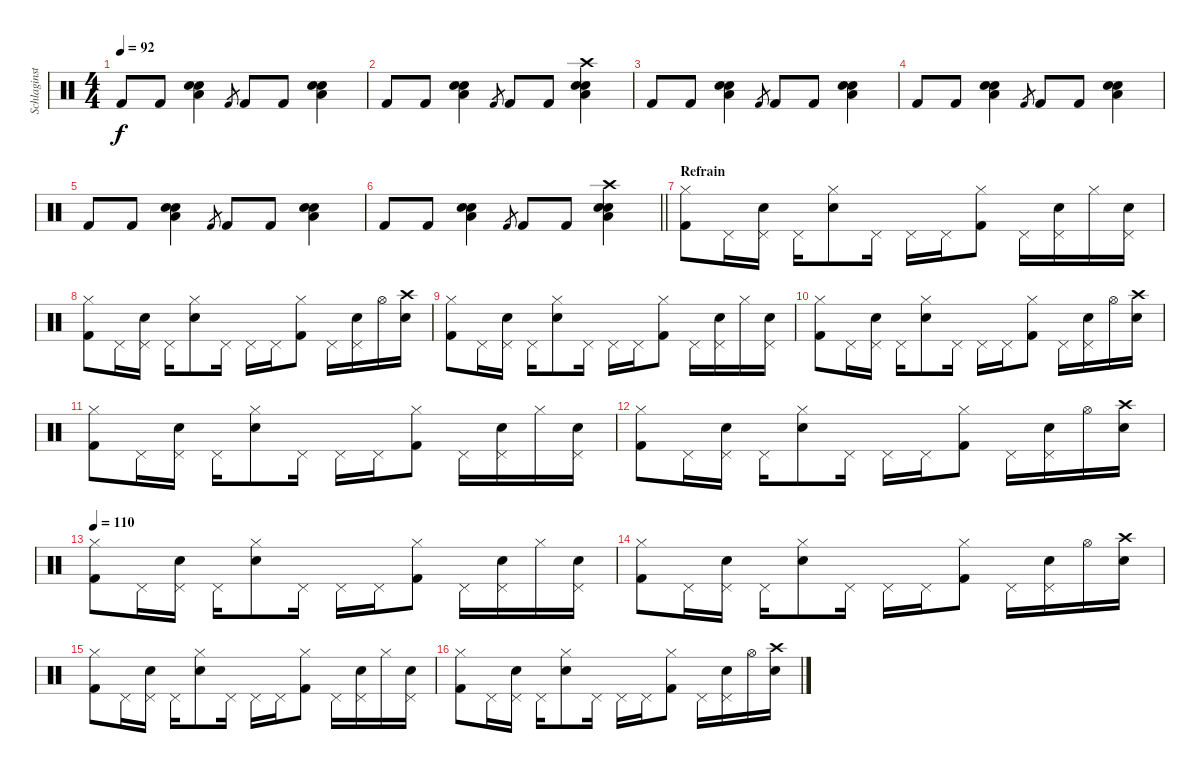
\track ("Schlaginstrumente - Auswahl" "Schlaginst") {mute instrument percussion}
\staff {score}
\articulation defaults
\ts (4 4)
\tempo 92
\clef neutral
\ks c "Kick (hit) 2".8{dy f} "Kick (hit) 2".8
("Low Floor Tom (hit)" "Electric Snare (hit)" "Electric Snare (hit)").4 "Kick (hit) 2".8{gr} "Kick (hit) 2".8 "Kick (hit) 2".8 ("Low Floor Tom (hit)" "Electric Snare (hit)" "Electric Snare (hit)").4 |
"Kick (hit) 2".8 "Kick (hit) 2".8 ("Low Floor Tom (hit)" "Electric Snare (hit)" "Electric Snare (hit)").4 "Kick (hit) 2".8{gr} "Kick (hit) 2".8 "Kick (hit) 2".8 ("Crash high (hit)" "Low Floor Tom (hit)" "Electric Snare (hit)" "Electric Snare (hit)").4 |
"Kick (hit) 2".8 "Kick (hit) 2".8 ("Low Floor Tom (hit)" "Electric Snare (hit)" "Electric Snare (hit)").4 "Kick (hit) 2".8{gr} "Kick (hit) 2".8 "Kick (hit) 2".8 ("Low Floor Tom (hit)" "Electric Snare (hit)" "Electric Snare (hit)").4 |
"Kick (hit) 2".8 "Kick (hit) 2".8 ("Low Floor Tom (hit)" "Electric Snare (hit)" "Electric Snare (hit)").4 "Kick (hit) 2".8{gr} "Kick (hit) 2".8 "Kick (hit) 2".8 ("Low Floor Tom (hit)" "Electric Snare (hit)" "Electric Snare (hit)").4 |
"Kick (hit) 2".8 "Kick (hit) 2".8 ("Low Floor Tom (hit)" "Electric Snare (hit)" "Electric Snare (hit)").4 "Kick (hit) 2".8{gr} "Kick (hit) 2".8 "Kick (hit) 2".8 ("Low Floor Tom (hit)" "Electric Snare (hit)" "Electric Snare (hit)").4 |
\barLineRight lightlight "Kick (hit) 2".8 "Kick (hit) 2".8
("Low Floor Tom (hit)" "Electric Snare (hit)" "Electric Snare (hit)").4 "Kick (hit) 2".8{gr} "Kick (hit) 2".8 "Kick (hit) 2".8 ("Crash high (hit)" "Low Floor Tom (hit)" "Electric Snare (hit)" "Electric Snare (hit)").4 |
\section ("" "Refrain")
("Hi-Hat (closed)" "Kick (hit) 2").8 "Pedal Hi-Hat (hit)".16 ("Pedal Hi-Hat (hit)" "Snare (hit) 2").16 "Pedal Hi-Hat (hit)".16 ("Hi-Hat (closed)" "Snare (hit) 2").8 "Pedal Hi-Hat (hit)".16 "Pedal Hi-Hat (hit)".16 "Pedal Hi-Hat (hit)".16 ("Hi-Hat (closed)" "Kick (hit) 2").8 "Pedal Hi-Hat (hit)".16 ("Pedal Hi-Hat (hit)" "Snare (hit) 2").16 "Hi-Hat (closed)".16 ("Pedal Hi-Hat (hit)" "Snare (hit) 2").16 |
("Hi-Hat (closed)" "Kick (hit) 2").8 "Pedal Hi-Hat (hit)".16 ("Pedal Hi-Hat (hit)" "Snare (hit) 2").16 "Pedal Hi-Hat (hit)".16 ("Hi-Hat (closed)" "Snare (hit) 2").8 "Pedal Hi-Hat (hit)".16 "Pedal Hi-Hat (hit)".16 "Pedal Hi-Hat (hit)".16 ("Hi-Hat (closed)" "Kick (hit) 2").8 "Pedal Hi-Hat (hit)".16 ("Pedal Hi-Hat (hit)" "Snare (hit) 2").16 "Hi-Hat (open)".16 ("Crash high (hit)" "Snare (hit) 2").16 |
("Hi-Hat (closed)" "Kick (hit) 2").8 "Pedal Hi-Hat (hit)".16 ("Pedal Hi-Hat (hit)" "Snare (hit) 2").16 "Pedal Hi-Hat (hit)".16 ("Hi-Hat (closed)" "Snare (hit) 2").8 "Pedal Hi-Hat (hit)".16 "Pedal Hi-Hat (hit)".16 "Pedal Hi-Hat (hit)".16 ("Hi-Hat (closed)" "Kick (hit) 2").8 "Pedal Hi-Hat (hit)".16 ("Pedal Hi-Hat (hit)" "Snare (hit) 2").16 "Hi-Hat (closed)".16 ("Pedal Hi-Hat (hit)" "Snare (hit) 2").16 |
("Hi-Hat (closed)" "Kick (hit) 2").8 "Pedal Hi-Hat (hit)".16 ("Pedal Hi-Hat (hit)" "Snare (hit) 2").16 "Pedal Hi-Hat (hit)".16 ("Hi-Hat (closed)" "Snare (hit) 2").8 "Pedal Hi-Hat (hit)".16 "Pedal Hi-Hat (hit)".16 "Pedal Hi-Hat (hit)".16 ("Hi-Hat (closed)" "Kick (hit) 2").8 "Pedal Hi-Hat (hit)".16 ("Pedal Hi-Hat (hit)" "Snare (hit) 2").16 "Hi-Hat (open)".16 ("Crash high (hit)" "Snare (hit) 2").16 |
("Hi-Hat (closed)" "Kick (hit) 2").8 "Pedal Hi-Hat (hit)".16 ("Pedal Hi-Hat (hit)" "Snare (hit) 2").16 "Pedal Hi-Hat (hit)".16 ("Hi-Hat (closed)" "Snare (hit) 2").8 "Pedal Hi-Hat (hit)".16 "Pedal Hi-Hat (hit)".16 "Pedal Hi-Hat (hit)".16 ("Hi-Hat (closed)" "Kick (hit) 2").8 "Pedal Hi-Hat (hit)".16 ("Pedal Hi-Hat (hit)" "Snare (hit) 2").16 "Hi-Hat (closed)".16 ("Pedal Hi-Hat (hit)" "Snare (hit) 2").16 |
("Hi-Hat (closed)" "Kick (hit) 2").8 "Pedal Hi-Hat (hit)".16 ("Pedal Hi-Hat (hit)" "Snare (hit) 2").16 "Pedal Hi-Hat (hit)".16 ("Hi-Hat (closed)" "Snare (hit) 2").8 "Pedal Hi-Hat (hit)".16 "Pedal Hi-Hat (hit)".16 "Pedal Hi-Hat (hit)".16 ("Hi-Hat (closed)" "Kick (hit) 2").8 "Pedal Hi-Hat (hit)".16 ("Pedal Hi-Hat (hit)" "Snare (hit) 2").16 "Hi-Hat (open)".16 ("Crash high (hit)" "Snare (hit) 2").16 |
\tempo 110
("Hi-Hat (closed)" "Kick (hit) 2").8 "Pedal Hi-Hat (hit)".16 ("Pedal Hi-Hat (hit)" "Snare (hit) 2").16 "Pedal Hi-Hat (hit)".16 ("Hi-Hat (closed)" "Snare (hit) 2").8 "Pedal Hi-Hat (hit)".16 "Pedal Hi-Hat (hit)".16 "Pedal Hi-Hat (hit)".16 ("Hi-Hat (closed)" "Kick (hit) 2").8 "Pedal Hi-Hat (hit)".16 ("Pedal Hi-Hat (hit)" "Snare (hit) 2").16 "Hi-Hat (closed)".16 ("Pedal Hi-Hat (hit)" "Snare (hit) 2").16 |
("Hi-Hat (closed)" "Kick (hit) 2").8 "Pedal Hi-Hat (hit)".16 ("Pedal Hi-Hat (hit)" "Snare (hit) 2").16 "Pedal Hi-Hat (hit)".16 ("Hi-Hat (closed)" "Snare (hit) 2").8 "Pedal Hi-Hat (hit)".16 "Pedal Hi-Hat (hit)".16 "Pedal Hi-Hat (hit)".16 ("Hi-Hat (closed)" "Kick (hit) 2").8 "Pedal Hi-Hat (hit)".16 ("Pedal Hi-Hat (hit)" "Snare (hit) 2").16 "Hi-Hat (open)".16 ("Crash high (hit)" "Snare (hit) 2").16 |
("Hi-Hat (closed)" "Kick (hit) 2").8 "Pedal Hi-Hat (hit)".16 ("Pedal Hi-Hat (hit)" "Snare (hit) 2").16 "Pedal Hi-Hat (hit)".16 ("Hi-Hat (closed)" "Snare (hit) 2").8 "Pedal Hi-Hat (hit)".16 "Pedal Hi-Hat (hit)".16 "Pedal Hi-Hat (hit)".16 ("Hi-Hat (closed)" "Kick (hit) 2").8 "Pedal Hi-Hat (hit)".16 ("Pedal Hi-Hat (hit)" "Snare (hit) 2").16 "Hi-Hat (closed)".16 ("Pedal Hi-Hat (hit)" "Snare (hit) 2").16 |
("Hi-Hat (closed)" "Kick (hit) 2").8 "Pedal Hi-Hat (hit)".16 ("Pedal Hi-Hat (hit)" "Snare (hit) 2").16 "Pedal Hi-Hat (hit)".16 ("Hi-Hat (closed)" "Snare (hit) 2").8 "Pedal Hi-Hat (hit)".16 "Pedal Hi-Hat (hit)".16 "Pedal Hi-Hat (hit)".16 ("Hi-Hat (closed)" "Kick (hit) 2").8 "Pedal Hi-Hat (hit)".16 ("Pedal Hi-Hat (hit)" "Snare (hit) 2").16 "Hi-Hat (open)".16 ("Crash high (hit)" "Snare (hit) 2").16
